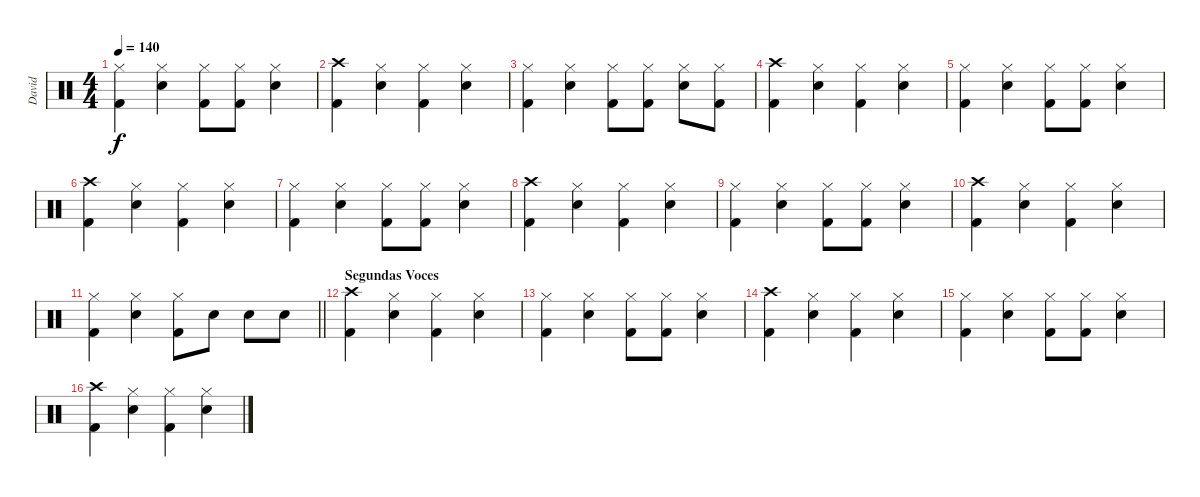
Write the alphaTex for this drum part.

\track ("David" "David") {instrument percussion}
\staff {score}
\articulation defaults
\ts (4 4)
\tempo 140
\clef neutral
\ks c
("Hi-Hat (closed)" "Kick (hit) 2").4{dy f} ("Hi-Hat (closed)" "Snare (hit) 2").4 ("Hi-Hat (closed)" "Kick (hit) 2").8 ("Hi-Hat (closed)" "Kick (hit) 2").8 ("Hi-Hat (closed)" "Snare (hit) 2").4 |
("Crash high (hit)" "Kick (hit) 2").4 ("Hi-Hat (closed)" "Snare (hit) 2").4 ("Hi-Hat (closed)" "Kick (hit) 2").4 ("Hi-Hat (closed)" "Snare (hit) 2").4 |
("Hi-Hat (closed)" "Kick (hit) 2").4 ("Hi-Hat (closed)" "Snare (hit) 2").4 ("Hi-Hat (closed)" "Kick (hit) 2").8 ("Hi-Hat (closed)" "Kick (hit) 2").8 ("Hi-Hat (closed)" "Snare (hit) 2").8 ("Hi-Hat (closed)" "Kick (hit) 2").8 |
("Crash high (hit)" "Kick (hit) 2").4 ("Hi-Hat (closed)" "Snare (hit) 2").4 ("Hi-Hat (closed)" "Kick (hit) 2").4 ("Hi-Hat (closed)" "Snare (hit) 2").4 |
("Hi-Hat (closed)" "Kick (hit) 2").4 ("Hi-Hat (closed)" "Snare (hit) 2").4 ("Hi-Hat (closed)" "Kick (hit) 2").8 ("Hi-Hat (closed)" "Kick (hit) 2").8 ("Hi-Hat (closed)" "Snare (hit) 2").4 |
("Crash high (hit)" "Kick (hit) 2").4 ("Hi-Hat (closed)" "Snare (hit) 2").4 ("Hi-Hat (closed)" "Kick (hit) 2").4 ("Hi-Hat (closed)" "Snare (hit) 2").4 |
("Hi-Hat (closed)" "Kick (hit) 2").4 ("Hi-Hat (closed)" "Snare (hit) 2").4 ("Hi-Hat (closed)" "Kick (hit) 2").8 ("Hi-Hat (closed)" "Kick (hit) 2").8 ("Hi-Hat (closed)" "Snare (hit) 2").4 |
("Crash high (hit)" "Kick (hit) 2").4 ("Hi-Hat (closed)" "Snare (hit) 2").4 ("Hi-Hat (closed)" "Kick (hit) 2").4 ("Hi-Hat (closed)" "Snare (hit) 2").4 |
("Hi-Hat (closed)" "Kick (hit) 2").4 ("Hi-Hat (closed)" "Snare (hit) 2").4 ("Hi-Hat (closed)" "Kick (hit) 2").8 ("Hi-Hat (closed)" "Kick (hit) 2").8 ("Hi-Hat (closed)" "Snare (hit) 2").4 |
("Crash high (hit)" "Kick (hit) 2").4 ("Hi-Hat (closed)" "Snare (hit) 2").4 ("Hi-Hat (closed)" "Kick (hit) 2").4 ("Hi-Hat (closed)" "Snare (hit) 2").4 |
\barLineRight lightlight
("Hi-Hat (closed)" "Kick (hit) 2").4 ("Hi-Hat (closed)" "Snare (hit) 2").4 ("Hi-Hat (closed)" "Kick (hit) 2").8 "Snare (hit) 2".8 "Snare (hit) 2".8 "Snare (hit) 2".8 |
\section ("" "Segundas Voces")
("Crash high (hit)" "Kick (hit) 2").4 ("Hi-Hat (closed)" "Snare (hit) 2").4 ("Hi-Hat (closed)" "Kick (hit) 2").4 ("Hi-Hat (closed)" "Snare (hit) 2").4 |
("Hi-Hat (closed)" "Kick (hit) 2").4 ("Hi-Hat (closed)" "Snare (hit) 2").4 ("Hi-Hat (closed)" "Kick (hit) 2").8 ("Hi-Hat (closed)" "Kick (hit) 2").8 ("Hi-Hat (closed)" "Snare (hit) 2").4 |
("Crash high (hit)" "Kick (hit) 2").4 ("Hi-Hat (closed)" "Snare (hit) 2").4 ("Hi-Hat (closed)" "Kick (hit) 2").4 ("Hi-Hat (closed)" "Snare (hit) 2").4 |
("Hi-Hat (closed)" "Kick (hit) 2").4 ("Hi-Hat (closed)" "Snare (hit) 2").4 ("Hi-Hat (closed)" "Kick (hit) 2").8 ("Hi-Hat (closed)" "Kick (hit) 2").8 ("Hi-Hat (closed)" "Snare (hit) 2").4 |
("Crash high (hit)" "Kick (hit) 2").4 ("Hi-Hat (closed)" "Snare (hit) 2").4 ("Hi-Hat (closed)" "Kick (hit) 2").4 ("Hi-Hat (closed)" "Snare (hit) 2").4
